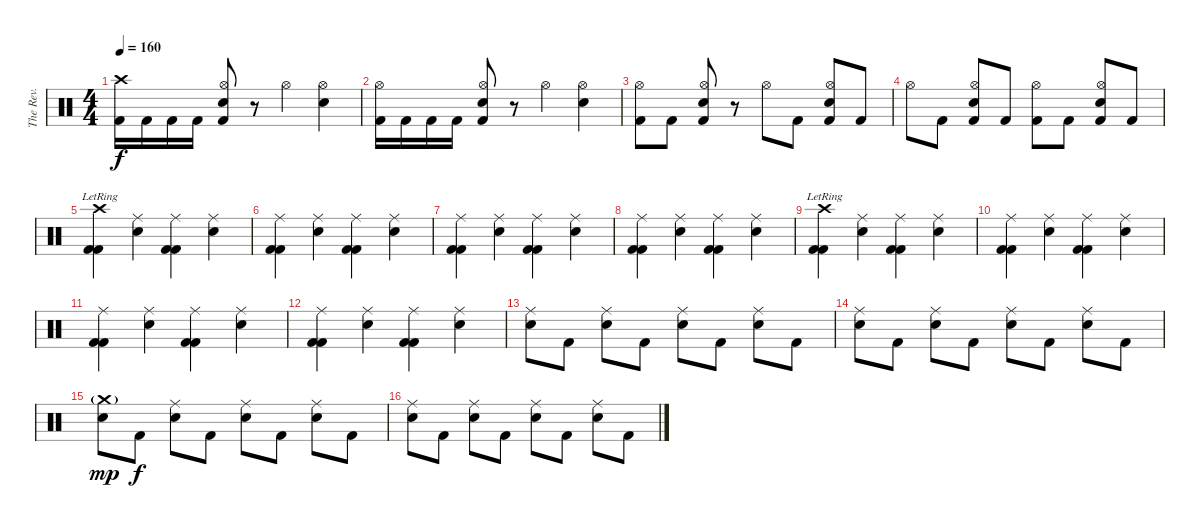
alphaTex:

\track ("The Rev." "The Rev.") {instrument percussion}
\staff {score}
\articulation defaults
\ts (4 4)
\tempo 160
\clef neutral
\ks c
("Crash high (hit)" "Kick (hit) 2").16{dy f} "Kick (hit) 2".16 "Kick (hit) 2".16 "Kick (hit) 2".16 ("Hi-Hat (open)" "Electric Snare (hit)" "Kick (hit) 2").8 r.8 "Hi-Hat (open)".4 ("Hi-Hat (open)" "Electric Snare (hit)").4 |
("Hi-Hat (open)" "Kick (hit) 2").16 "Kick (hit) 2".16 "Kick (hit) 2".16 "Kick (hit) 2".16 ("Hi-Hat (open)" "Electric Snare (hit)" "Kick (hit) 2").8 r.8 "Hi-Hat (open)".4 ("Hi-Hat (open)" "Electric Snare (hit)").4 |
("Hi-Hat (open)" "Kick (hit) 2").8 "Kick (hit) 2".8 ("Hi-Hat (open)" "Electric Snare (hit)" "Kick (hit) 2").8 r.8 "Hi-Hat (open)".8 "Kick (hit) 2".8 ("Hi-Hat (open)" "Electric Snare (hit)" "Kick (hit) 2").8 "Kick (hit) 2".8 |
"Hi-Hat (open)".8 "Kick (hit) 2".8 ("Hi-Hat (open)" "Electric Snare (hit)" "Kick (hit) 2").8 "Kick (hit) 2".8 ("Hi-Hat (open)" "Kick (hit) 2").8 "Kick (hit) 2".8 ("Hi-Hat (open)" "Electric Snare (hit)" "Kick (hit) 2").8 "Kick (hit) 2".8 |
("Crash high (hit)" "Kick (hit) 2" "Kick (hit) 2"{lr}).4 ("Ride (middle)" "Electric Snare (hit)").4 ("Ride (middle)" "Kick (hit) 2" "Kick (hit) 2").4 ("Ride (middle)" "Electric Snare (hit)").4 |
("Ride (middle)" "Kick (hit) 2" "Kick (hit) 2").4 ("Ride (middle)" "Electric Snare (hit)").4 ("Ride (middle)" "Kick (hit) 2" "Kick (hit) 2").4 ("Ride (middle)" "Electric Snare (hit)").4 |
("Ride (middle)" "Kick (hit) 2" "Kick (hit) 2").4 ("Ride (middle)" "Electric Snare (hit)").4 ("Ride (middle)" "Kick (hit) 2" "Kick (hit) 2").4 ("Ride (middle)" "Electric Snare (hit)").4 |
("Ride (middle)" "Kick (hit) 2" "Kick (hit) 2").4 ("Ride (middle)" "Electric Snare (hit)").4 ("Ride (middle)" "Kick (hit) 2" "Kick (hit) 2").4 ("Ride (middle)" "Electric Snare (hit)").4 |
("Crash high (hit)" "Kick (hit) 2" "Kick (hit) 2"{lr}).4 ("Ride (middle)" "Electric Snare (hit)").4 ("Ride (middle)" "Kick (hit) 2" "Kick (hit) 2").4 ("Ride (middle)" "Electric Snare (hit)").4 |
("Ride (middle)" "Kick (hit) 2" "Kick (hit) 2").4 ("Ride (middle)" "Electric Snare (hit)").4 ("Ride (middle)" "Kick (hit) 2" "Kick (hit) 2").4 ("Ride (middle)" "Electric Snare (hit)").4 |
("Ride (middle)" "Kick (hit) 2" "Kick (hit) 2").4 ("Ride (middle)" "Electric Snare (hit)").4 ("Ride (middle)" "Kick (hit) 2" "Kick (hit) 2").4 ("Ride (middle)" "Electric Snare (hit)").4 |
("Ride (middle)" "Kick (hit) 2" "Kick (hit) 2").4 ("Ride (middle)" "Electric Snare (hit)").4 ("Ride (middle)" "Kick (hit) 2" "Kick (hit) 2").4 ("Ride (middle)" "Electric Snare (hit)").4 |
("Ride (middle)" "Electric Snare (hit)").8 "Kick (hit) 2".8 ("Ride (middle)" "Electric Snare (hit)").8 "Kick (hit) 2".8 ("Ride (middle)" "Electric Snare (hit)").8 "Kick (hit) 2".8 ("Ride (middle)" "Electric Snare (hit)").8 "Kick (hit) 2".8 |
("Ride (middle)" "Electric Snare (hit)").8 "Kick (hit) 2".8 ("Ride (middle)" "Electric Snare (hit)").8 "Kick (hit) 2".8 ("Ride (middle)" "Electric Snare (hit)").8 "Kick (hit) 2".8 ("Ride (middle)" "Electric Snare (hit)").8 "Kick (hit) 2".8 |
("Crash medium (hit)"{g} "Electric Snare (hit)").8{dy mp} "Kick (hit) 2".8{dy f} ("Ride (middle)" "Electric Snare (hit)").8 "Kick (hit) 2".8 ("Ride (middle)" "Electric Snare (hit)").8 "Kick (hit) 2".8 ("Ride (middle)" "Electric Snare (hit)").8 "Kick (hit) 2".8 |
("Ride (middle)" "Electric Snare (hit)").8 "Kick (hit) 2".8 ("Ride (middle)" "Electric Snare (hit)").8 "Kick (hit) 2".8 ("Ride (middle)" "Electric Snare (hit)").8 "Kick (hit) 2".8 ("Ride (middle)" "Electric Snare (hit)").8 "Kick (hit) 2".8
